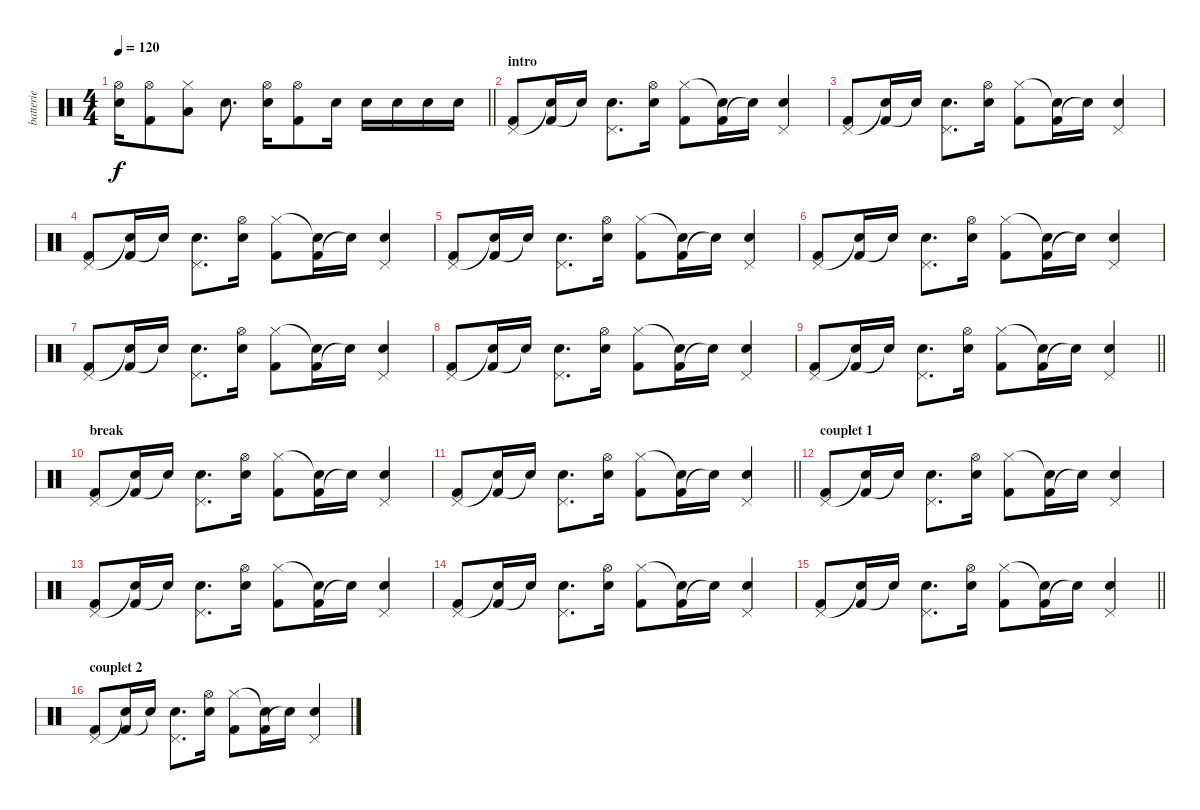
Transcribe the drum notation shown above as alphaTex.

\track ("batterie" "batterie") {instrument percussion}
\staff {score}
\articulation defaults
\ts (4 4)
\tempo 120
\clef neutral
\barLineRight lightlight
\ks c
("Snare (hit) 2" "Hi-Hat (open)").16{dy f} ("Kick (hit) 2" "Hi-Hat (open)").8 ("Low Tom (hit)" "Hi-Hat (closed)").8 "Snare (hit) 2".8{d} ("Snare (hit) 2" "Hi-Hat (open)").16 ("Kick (hit) 2" "Hi-Hat (open)").8 "Snare (hit) 2".16 "Snare (hit) 2".16 "Snare (hit) 2".16 "Snare (hit) 2".16 "Snare (hit) 2".16 |
\section ("" "intro")
("Kick (hit) 2" "Pedal Hi-Hat (hit)").8 ("Kick (hit) 2" "Snare (hit)"{t}).16 "Snare (hit)"{t}.16 ("Snare (hit) 2" "Pedal Hi-Hat (hit)").8{d} ("Snare (hit) 2" "Hi-Hat (open)").16 ("Kick (hit) 2" "Hi-Hat (closed)").8 ("Kick (hit) 2" "Snare (hit)"{t}).16 "Snare (hit)"{t}.16 ("Snare (hit) 2" "Pedal Hi-Hat (hit)").4 |
("Kick (hit) 2" "Pedal Hi-Hat (hit)").8 ("Kick (hit) 2" "Snare (hit)"{t}).16 "Snare (hit)"{t}.16 ("Snare (hit) 2" "Pedal Hi-Hat (hit)").8{d} ("Snare (hit) 2" "Hi-Hat (open)").16 ("Kick (hit) 2" "Hi-Hat (closed)").8 ("Kick (hit) 2" "Snare (hit)"{t}).16 "Snare (hit)"{t}.16 ("Snare (hit) 2" "Pedal Hi-Hat (hit)").4 |
("Kick (hit) 2" "Pedal Hi-Hat (hit)").8 ("Kick (hit) 2" "Snare (hit)"{t}).16 "Snare (hit)"{t}.16 ("Snare (hit) 2" "Pedal Hi-Hat (hit)").8{d} ("Snare (hit) 2" "Hi-Hat (open)").16 ("Kick (hit) 2" "Hi-Hat (closed)").8 ("Kick (hit) 2" "Snare (hit)"{t}).16 "Snare (hit)"{t}.16 ("Snare (hit) 2" "Pedal Hi-Hat (hit)").4 |
("Kick (hit) 2" "Pedal Hi-Hat (hit)").8 ("Kick (hit) 2" "Snare (hit)"{t}).16 "Snare (hit)"{t}.16 ("Snare (hit) 2" "Pedal Hi-Hat (hit)").8{d} ("Snare (hit) 2" "Hi-Hat (open)").16 ("Kick (hit) 2" "Hi-Hat (closed)").8 ("Kick (hit) 2" "Snare (hit)"{t}).16 "Snare (hit)"{t}.16 ("Snare (hit) 2" "Pedal Hi-Hat (hit)").4 |
("Kick (hit) 2" "Pedal Hi-Hat (hit)").8 ("Kick (hit) 2" "Snare (hit)"{t}).16 "Snare (hit)"{t}.16 ("Snare (hit) 2" "Pedal Hi-Hat (hit)").8{d} ("Snare (hit) 2" "Hi-Hat (open)").16 ("Kick (hit) 2" "Hi-Hat (closed)").8 ("Kick (hit) 2" "Snare (hit)"{t}).16 "Snare (hit)"{t}.16 ("Snare (hit) 2" "Pedal Hi-Hat (hit)").4 |
("Kick (hit) 2" "Pedal Hi-Hat (hit)").8 ("Kick (hit) 2" "Snare (hit)"{t}).16 "Snare (hit)"{t}.16 ("Snare (hit) 2" "Pedal Hi-Hat (hit)").8{d} ("Snare (hit) 2" "Hi-Hat (open)").16 ("Kick (hit) 2" "Hi-Hat (closed)").8 ("Kick (hit) 2" "Snare (hit)"{t}).16 "Snare (hit)"{t}.16 ("Snare (hit) 2" "Pedal Hi-Hat (hit)").4 |
("Kick (hit) 2" "Pedal Hi-Hat (hit)").8 ("Kick (hit) 2" "Snare (hit)"{t}).16 "Snare (hit)"{t}.16 ("Snare (hit) 2" "Pedal Hi-Hat (hit)").8{d} ("Snare (hit) 2" "Hi-Hat (open)").16 ("Kick (hit) 2" "Hi-Hat (closed)").8 ("Kick (hit) 2" "Snare (hit)"{t}).16 "Snare (hit)"{t}.16 ("Snare (hit) 2" "Pedal Hi-Hat (hit)").4 |
\barLineRight lightlight
("Kick (hit) 2" "Pedal Hi-Hat (hit)").8 ("Kick (hit) 2" "Snare (hit)"{t}).16 "Snare (hit)"{t}.16 ("Snare (hit) 2" "Pedal Hi-Hat (hit)").8{d} ("Snare (hit) 2" "Hi-Hat (open)").16 ("Kick (hit) 2" "Hi-Hat (closed)").8 ("Kick (hit) 2" "Snare (hit)"{t}).16 "Snare (hit)"{t}.16 ("Snare (hit) 2" "Pedal Hi-Hat (hit)").4 |
\section ("" "break")
("Kick (hit) 2" "Pedal Hi-Hat (hit)").8 ("Kick (hit) 2" "Snare (hit)"{t}).16 "Snare (hit)"{t}.16 ("Snare (hit) 2" "Pedal Hi-Hat (hit)").8{d} ("Snare (hit) 2" "Hi-Hat (open)").16 ("Kick (hit) 2" "Hi-Hat (closed)").8 ("Kick (hit) 2" "Snare (hit)"{t}).16 "Snare (hit)"{t}.16 ("Snare (hit) 2" "Pedal Hi-Hat (hit)").4 |
\barLineRight lightlight
("Kick (hit) 2" "Pedal Hi-Hat (hit)").8 ("Kick (hit) 2" "Snare (hit)"{t}).16 "Snare (hit)"{t}.16 ("Snare (hit) 2" "Pedal Hi-Hat (hit)").8{d} ("Snare (hit) 2" "Hi-Hat (open)").16 ("Kick (hit) 2" "Hi-Hat (closed)").8 ("Kick (hit) 2" "Snare (hit)"{t}).16 "Snare (hit)"{t}.16 ("Snare (hit) 2" "Pedal Hi-Hat (hit)").4 |
\section ("" "couplet 1")
("Kick (hit) 2" "Pedal Hi-Hat (hit)").8 ("Kick (hit) 2" "Snare (hit)"{t}).16 "Snare (hit)"{t}.16 ("Snare (hit) 2" "Pedal Hi-Hat (hit)").8{d} ("Snare (hit) 2" "Hi-Hat (open)").16 ("Kick (hit) 2" "Hi-Hat (closed)").8 ("Kick (hit) 2" "Snare (hit)"{t}).16 "Snare (hit)"{t}.16 ("Snare (hit) 2" "Pedal Hi-Hat (hit)").4 |
("Kick (hit) 2" "Pedal Hi-Hat (hit)").8 ("Kick (hit) 2" "Snare (hit)"{t}).16 "Snare (hit)"{t}.16 ("Snare (hit) 2" "Pedal Hi-Hat (hit)").8{d} ("Snare (hit) 2" "Hi-Hat (open)").16 ("Kick (hit) 2" "Hi-Hat (closed)").8 ("Kick (hit) 2" "Snare (hit)"{t}).16 "Snare (hit)"{t}.16 ("Snare (hit) 2" "Pedal Hi-Hat (hit)").4 |
("Kick (hit) 2" "Pedal Hi-Hat (hit)").8 ("Kick (hit) 2" "Snare (hit)"{t}).16 "Snare (hit)"{t}.16 ("Snare (hit) 2" "Pedal Hi-Hat (hit)").8{d} ("Snare (hit) 2" "Hi-Hat (open)").16 ("Kick (hit) 2" "Hi-Hat (closed)").8 ("Kick (hit) 2" "Snare (hit)"{t}).16 "Snare (hit)"{t}.16 ("Snare (hit) 2" "Pedal Hi-Hat (hit)").4 |
\barLineRight lightlight
("Kick (hit) 2" "Pedal Hi-Hat (hit)").8 ("Kick (hit) 2" "Snare (hit)"{t}).16 "Snare (hit)"{t}.16 ("Snare (hit) 2" "Pedal Hi-Hat (hit)").8{d} ("Snare (hit) 2" "Hi-Hat (open)").16 ("Kick (hit) 2" "Hi-Hat (closed)").8 ("Kick (hit) 2" "Snare (hit)"{t}).16 "Snare (hit)"{t}.16 ("Snare (hit) 2" "Pedal Hi-Hat (hit)").4 |
\section ("" "couplet 2")
("Kick (hit) 2" "Pedal Hi-Hat (hit)").8 ("Kick (hit) 2" "Snare (hit)"{t}).16 "Snare (hit)"{t}.16 ("Snare (hit) 2" "Pedal Hi-Hat (hit)").8{d} ("Snare (hit) 2" "Hi-Hat (open)").16 ("Kick (hit) 2" "Hi-Hat (closed)").8 ("Kick (hit) 2" "Snare (hit)"{t}).16 "Snare (hit)"{t}.16 ("Snare (hit) 2" "Pedal Hi-Hat (hit)").4
